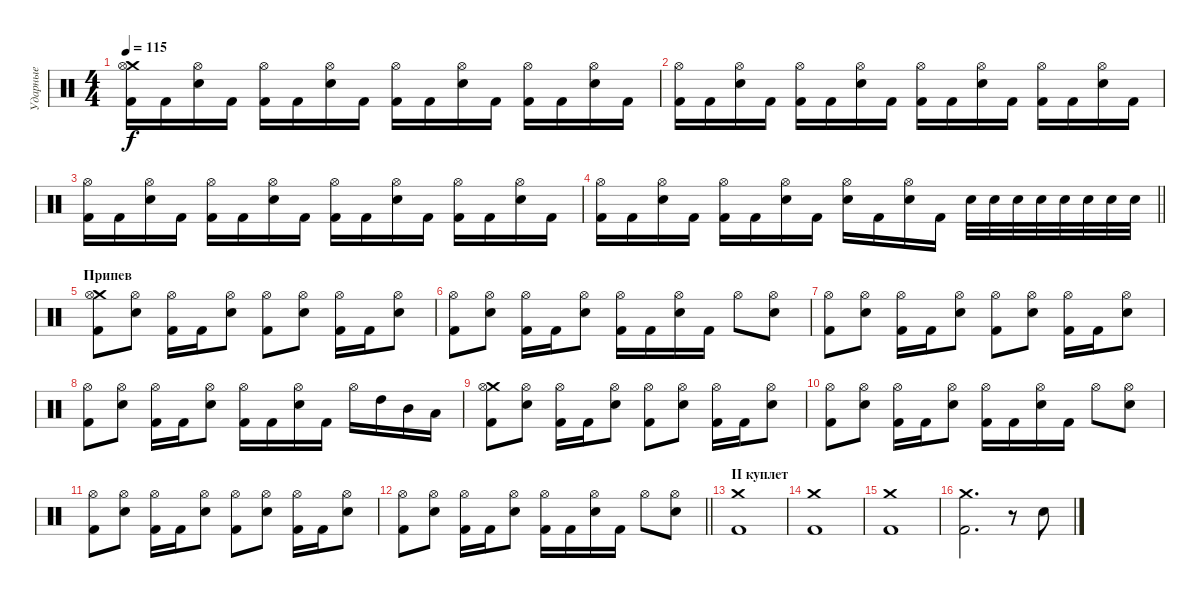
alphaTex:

\track ("Ударные" "Ударные") {instrument percussion}
\staff {score}
\articulation defaults
\ts (4 4)
\tempo 115
\clef neutral
\ks aminor
("Crash medium (hit)" "Kick (hit) 2" "Hi-Hat (open)").16{dy f} "Kick (hit) 2".16 ("Electric Snare (hit)" "Hi-Hat (open)").16 "Kick (hit) 2".16 ("Kick (hit) 2" "Hi-Hat (open)").16 "Kick (hit) 2".16 ("Electric Snare (hit)" "Hi-Hat (open)").16 "Kick (hit) 2".16 ("Kick (hit) 2" "Hi-Hat (open)").16 "Kick (hit) 2".16 ("Electric Snare (hit)" "Hi-Hat (open)").16 "Kick (hit) 2".16 ("Kick (hit) 2" "Hi-Hat (open)").16 "Kick (hit) 2".16 ("Electric Snare (hit)" "Hi-Hat (open)").16 "Kick (hit) 2".16 |
("Kick (hit) 2" "Hi-Hat (open)").16 "Kick (hit) 2".16 ("Electric Snare (hit)" "Hi-Hat (open)").16 "Kick (hit) 2".16 ("Kick (hit) 2" "Hi-Hat (open)").16 "Kick (hit) 2".16 ("Electric Snare (hit)" "Hi-Hat (open)").16 "Kick (hit) 2".16 ("Kick (hit) 2" "Hi-Hat (open)").16 "Kick (hit) 2".16 ("Electric Snare (hit)" "Hi-Hat (open)").16 "Kick (hit) 2".16 ("Kick (hit) 2" "Hi-Hat (open)").16 "Kick (hit) 2".16 ("Electric Snare (hit)" "Hi-Hat (open)").16 "Kick (hit) 2".16 |
("Kick (hit) 2" "Hi-Hat (open)").16 "Kick (hit) 2".16 ("Electric Snare (hit)" "Hi-Hat (open)").16 "Kick (hit) 2".16 ("Kick (hit) 2" "Hi-Hat (open)").16 "Kick (hit) 2".16 ("Electric Snare (hit)" "Hi-Hat (open)").16 "Kick (hit) 2".16 ("Kick (hit) 2" "Hi-Hat (open)").16 "Kick (hit) 2".16 ("Electric Snare (hit)" "Hi-Hat (open)").16 "Kick (hit) 2".16 ("Kick (hit) 2" "Hi-Hat (open)").16 "Kick (hit) 2".16 ("Electric Snare (hit)" "Hi-Hat (open)").16 "Kick (hit) 2".16 |
\barLineRight lightlight
("Kick (hit) 2" "Hi-Hat (open)").16 "Kick (hit) 2".16 ("Electric Snare (hit)" "Hi-Hat (open)").16 "Kick (hit) 2".16 ("Kick (hit) 2" "Hi-Hat (open)").16 "Kick (hit) 2".16 ("Electric Snare (hit)" "Hi-Hat (open)").16 "Kick (hit) 2".16 ("Electric Snare (hit)" "Hi-Hat (open)").16 "Kick (hit) 2".16 ("Electric Snare (hit)" "Hi-Hat (open)").16 "Kick (hit) 2".16 "Electric Snare (hit)".32 "Electric Snare (hit)".32 "Electric Snare (hit)".32 "Electric Snare (hit)".32 "Electric Snare (hit)".32 "Electric Snare (hit)".32 "Electric Snare (hit)".32 "Electric Snare (hit)".32 |
\section ("" "Припев")
("Crash medium (hit)" "Kick (hit) 2" "Hi-Hat (open)").8 ("Electric Snare (hit)" "Hi-Hat (open)").8 ("Kick (hit) 2" "Hi-Hat (open)").16 "Kick (hit) 2".16 ("Electric Snare (hit)" "Hi-Hat (open)").8 ("Kick (hit) 2" "Hi-Hat (open)").8 ("Electric Snare (hit)" "Hi-Hat (open)").8 ("Kick (hit) 2" "Hi-Hat (open)").16 "Kick (hit) 2".16 ("Electric Snare (hit)" "Hi-Hat (open)").8 |
("Kick (hit) 2" "Hi-Hat (open)").8 ("Electric Snare (hit)" "Hi-Hat (open)").8 ("Kick (hit) 2" "Hi-Hat (open)").16 "Kick (hit) 2".16 ("Electric Snare (hit)" "Hi-Hat (open)").8 ("Kick (hit) 2" "Hi-Hat (open)").16 "Kick (hit) 2".16 ("Electric Snare (hit)" "Hi-Hat (open)").16 "Kick (hit) 2".16 "Hi-Hat (open)".8 ("Electric Snare (hit)" "Hi-Hat (open)").8 |
("Kick (hit) 2" "Hi-Hat (open)").8 ("Electric Snare (hit)" "Hi-Hat (open)").8 ("Kick (hit) 2" "Hi-Hat (open)").16 "Kick (hit) 2".16 ("Electric Snare (hit)" "Hi-Hat (open)").8 ("Kick (hit) 2" "Hi-Hat (open)").8 ("Electric Snare (hit)" "Hi-Hat (open)").8 ("Kick (hit) 2" "Hi-Hat (open)").16 "Kick (hit) 2".16 ("Electric Snare (hit)" "Hi-Hat (open)").8 |
("Kick (hit) 2" "Hi-Hat (open)").8 ("Electric Snare (hit)" "Hi-Hat (open)").8 ("Kick (hit) 2" "Hi-Hat (open)").16 "Kick (hit) 2".16 ("Electric Snare (hit)" "Hi-Hat (open)").8 ("Kick (hit) 2" "Hi-Hat (open)").16 "Kick (hit) 2".16 ("Electric Snare (hit)" "Hi-Hat (open)").16 "Kick (hit) 2".16 "Hi-Hat (open)".16 "High Tom (hit)".16 "Mid Tom (hit)".16 "Low Tom (hit)".16 |
("Crash medium (hit)" "Kick (hit) 2" "Hi-Hat (open)").8 ("Electric Snare (hit)" "Hi-Hat (open)").8 ("Kick (hit) 2" "Hi-Hat (open)").16 "Kick (hit) 2".16 ("Electric Snare (hit)" "Hi-Hat (open)").8 ("Kick (hit) 2" "Hi-Hat (open)").8 ("Electric Snare (hit)" "Hi-Hat (open)").8 ("Kick (hit) 2" "Hi-Hat (open)").16 "Kick (hit) 2".16 ("Electric Snare (hit)" "Hi-Hat (open)").8 |
("Kick (hit) 2" "Hi-Hat (open)").8 ("Electric Snare (hit)" "Hi-Hat (open)").8 ("Kick (hit) 2" "Hi-Hat (open)").16 "Kick (hit) 2".16 ("Electric Snare (hit)" "Hi-Hat (open)").8 ("Kick (hit) 2" "Hi-Hat (open)").16 "Kick (hit) 2".16 ("Electric Snare (hit)" "Hi-Hat (open)").16 "Kick (hit) 2".16 "Hi-Hat (open)".8 ("Electric Snare (hit)" "Hi-Hat (open)").8 |
("Kick (hit) 2" "Hi-Hat (open)").8 ("Electric Snare (hit)" "Hi-Hat (open)").8 ("Kick (hit) 2" "Hi-Hat (open)").16 "Kick (hit) 2".16 ("Electric Snare (hit)" "Hi-Hat (open)").8 ("Kick (hit) 2" "Hi-Hat (open)").8 ("Electric Snare (hit)" "Hi-Hat (open)").8 ("Kick (hit) 2" "Hi-Hat (open)").16 "Kick (hit) 2".16 ("Electric Snare (hit)" "Hi-Hat (open)").8 |
\barLineRight lightlight
("Kick (hit) 2" "Hi-Hat (open)").8 ("Electric Snare (hit)" "Hi-Hat (open)").8 ("Kick (hit) 2" "Hi-Hat (open)").16 "Kick (hit) 2".16 ("Electric Snare (hit)" "Hi-Hat (open)").8 ("Kick (hit) 2" "Hi-Hat (open)").16 "Kick (hit) 2".16 ("Electric Snare (hit)" "Hi-Hat (open)").16 "Kick (hit) 2".16 "Hi-Hat (open)".8 ("Electric Snare (hit)" "Hi-Hat (open)").8 |
\section ("" "II куплет")
("Crash medium (hit)" "Kick (hit) 2").1 |
("Crash medium (hit)" "Kick (hit) 2").1 |
("Crash medium (hit)" "Kick (hit) 2").1 |
("Crash medium (hit)" "Kick (hit) 2").2{d} r.8 "Electric Snare (hit)".8
